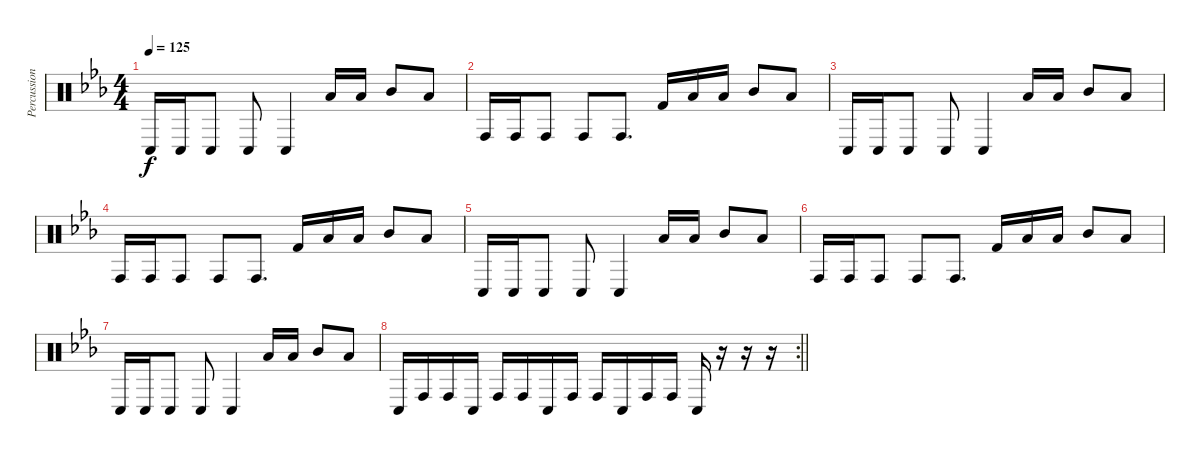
\track ("Percussion" "Percussion") {instrument percussion}
\staff {score}
\articulation defaults
\ts (4 4)
\tempo 125
\clef neutral
\ks cminor "Conga low (hit)".16{dy f} "Conga low (hit)".16 "Conga low (hit)".8 "Conga low (hit)".8 "Conga low (hit)".4 "Low Tom (hit)".16 "Low Tom (hit)".16 "Mid Tom (hit)".8 "Low Tom (hit)".8
|
"Conga high (hit)".16 "Conga high (hit)".16 "Conga high (hit)".8 "Conga high (hit)".8 "Conga high (hit)".8{d} "Kick (hit) 2".16 "Low Tom (hit)".16 "Low Tom (hit)".16 "Mid Tom (hit)".8 "Low Tom (hit)".8 |
"Conga low (hit)".16 "Conga low (hit)".16 "Conga low (hit)".8 "Conga low (hit)".8 "Conga low (hit)".4 "Low Tom (hit)".16 "Low Tom (hit)".16 "Mid Tom (hit)".8 "Low Tom (hit)".8 |
"Conga high (hit)".16 "Conga high (hit)".16 "Conga high (hit)".8 "Conga high (hit)".8 "Conga high (hit)".8{d} "Kick (hit) 2".16 "Low Tom (hit)".16 "Low Tom (hit)".16 "Mid Tom (hit)".8 "Low Tom (hit)".8 |
"Conga low (hit)".16 "Conga low (hit)".16 "Conga low (hit)".8 "Conga low (hit)".8 "Conga low (hit)".4 "Low Tom (hit)".16 "Low Tom (hit)".16 "Mid Tom (hit)".8 "Low Tom (hit)".8 |
"Conga high (hit)".16 "Conga high (hit)".16 "Conga high (hit)".8 "Conga high (hit)".8 "Conga high (hit)".8{d} "Kick (hit) 2".16 "Low Tom (hit)".16 "Low Tom (hit)".16 "Mid Tom (hit)".8 "Low Tom (hit)".8 |
"Conga low (hit)".16 "Conga low (hit)".16 "Conga low (hit)".8 "Conga low (hit)".8 "Conga low (hit)".4 "Low Tom (hit)".16 "Low Tom (hit)".16 "Mid Tom (hit)".8 "Low Tom (hit)".8 |
\rc 2
\barLineRight lightlight "Conga low (hit)".16 "Conga high (hit)".16 "Conga high (hit)".16 "Conga low (hit)".16 "Conga high (hit)".16 "Conga high (hit)".16 "Conga low (hit)".16 "Conga high (hit)".16 "Conga high (hit)".16 "Conga low (hit)".16 "Conga high (hit)".16 "Conga high (hit)".16 "Conga low (hit)".16
r.16 r.16 r.16
